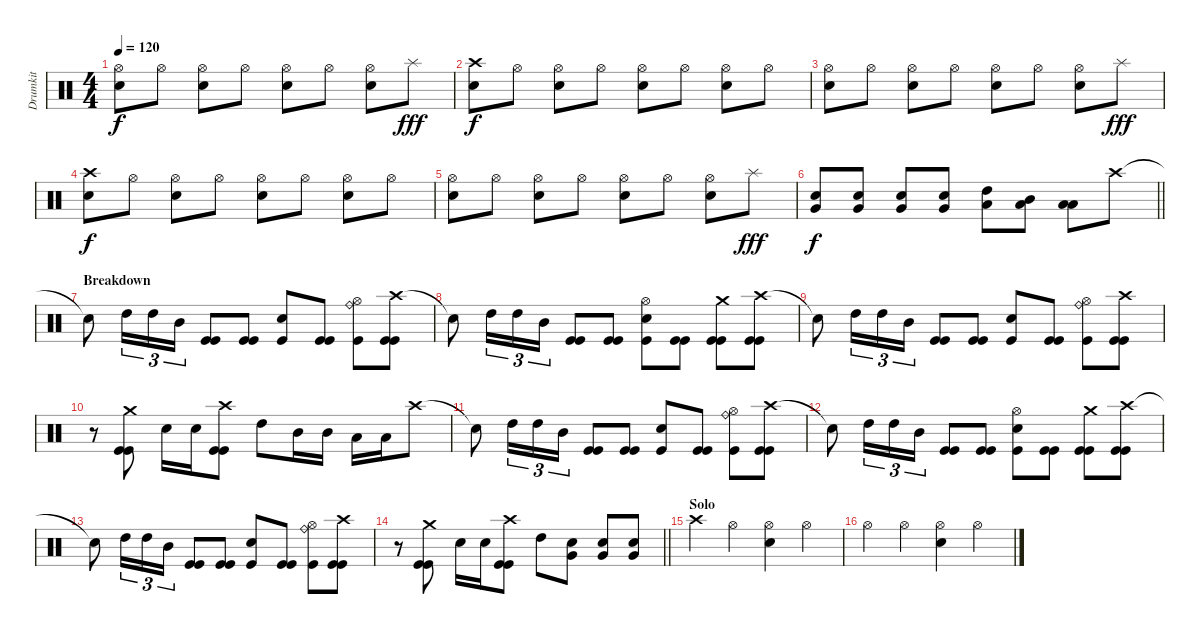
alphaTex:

\track ("Drumkit" "Drumkit") {instrument percussion}
\staff {score}
\articulation defaults
\ts (4 4)
\tempo 120
\clef neutral
\ks c
("Hi-Hat (open)" "Electric Snare (hit)").8{dy f} "Hi-Hat (open)".8 ("Hi-Hat (open)" "Electric Snare (hit)").8 "Hi-Hat (open)".8 ("Hi-Hat (open)" "Electric Snare (hit)").8 "Hi-Hat (open)".8 ("Hi-Hat (open)" "Electric Snare (hit)").8 "Splash (hit)".8{dy fff} |
("Crash high (hit)" "Electric Snare (hit)").8{dy f} "Hi-Hat (open)".8 ("Hi-Hat (open)" "Electric Snare (hit)").8 "Hi-Hat (open)".8 ("Hi-Hat (open)" "Electric Snare (hit)").8 "Hi-Hat (open)".8 ("Hi-Hat (open)" "Electric Snare (hit)").8 "Hi-Hat (open)".8 |
("Hi-Hat (open)" "Electric Snare (hit)").8 "Hi-Hat (open)".8 ("Hi-Hat (open)" "Electric Snare (hit)").8 "Hi-Hat (open)".8 ("Hi-Hat (open)" "Electric Snare (hit)").8 "Hi-Hat (open)".8 ("Hi-Hat (open)" "Electric Snare (hit)").8 "Splash (hit)".8{dy fff} |
("Crash high (hit)" "Electric Snare (hit)").8{dy f} "Hi-Hat (open)".8 ("Hi-Hat (open)" "Electric Snare (hit)").8 "Hi-Hat (open)".8 ("Hi-Hat (open)" "Electric Snare (hit)").8 "Hi-Hat (open)".8 ("Hi-Hat (open)" "Electric Snare (hit)").8 "Hi-Hat (open)".8 |
("Hi-Hat (open)" "Electric Snare (hit)").8 "Hi-Hat (open)".8 ("Hi-Hat (open)" "Electric Snare (hit)").8 "Hi-Hat (open)".8 ("Hi-Hat (open)" "Electric Snare (hit)").8 "Hi-Hat (open)".8 ("Hi-Hat (open)" "Electric Snare (hit)").8 "Splash (hit)".8{dy fff} |
\barLineRight lightlight
("Very Low Tom (hit)" "Electric Snare (hit)").8{dy f} ("Very Low Tom (hit)" "Electric Snare (hit)").8 ("Very Low Tom (hit)" "Electric Snare (hit)").8 ("Very Low Tom (hit)" "Electric Snare (hit)").8 ("High Tom (hit)" "Low Floor Tom (hit)").8 ("Mid Tom (hit)" "Low Floor Tom (hit)").8 ("Low Tom (hit)" "Low Floor Tom (hit)").8 "Crash high (hit)".8 |
\section ("" "Breakdown")
"Snare (hit)"{t}.8 "High Tom (hit)".16{tu (3 2)} "High Tom (hit)".16{tu (3 2)} "Mid Tom (hit)".16{tu (3 2)} ("Kick (hit)" "Kick (hit)").8 ("Kick (hit)" "Kick (hit)").8 ("Electric Snare (hit)" "Kick (hit)").8 ("Kick (hit)" "Kick (hit)").8 ("Hi-Hat (open)" "Ride (bell)" "Kick (hit)").8 ("Crash high (hit)" "Kick (hit)" "Kick (hit)").8 |
"Snare (hit)"{t}.8 "High Tom (hit)".16{tu (3 2)} "High Tom (hit)".16{tu (3 2)} "Mid Tom (hit)".16{tu (3 2)} ("Kick (hit)" "Kick (hit)").8 ("Kick (hit)" "Kick (hit)").8 ("Hi-Hat (open)" "Electric Snare (hit)" "Kick (hit)").8 ("Kick (hit)" "Kick (hit)").8 ("Crash medium (hit)" "Kick (hit)" "Kick (hit)").8 ("Crash high (hit)" "Kick (hit)" "Kick (hit)").8 |
"Snare (hit)"{t}.8 "High Tom (hit)".16{tu (3 2)} "High Tom (hit)".16{tu (3 2)} "Mid Tom (hit)".16{tu (3 2)} ("Kick (hit)" "Kick (hit)").8 ("Kick (hit)" "Kick (hit)").8 ("Electric Snare (hit)" "Kick (hit)").8 ("Kick (hit)" "Kick (hit)").8 ("Hi-Hat (open)" "Ride (bell)" "Kick (hit)").8 ("Crash high (hit)" "Kick (hit)" "Kick (hit)").8 |
r.8 ("Crash medium (hit)" "Kick (hit)" "Kick (hit)").8 "Electric Snare (hit)".16 "Electric Snare (hit)".16 ("Crash high (hit)" "Kick (hit)" "Kick (hit)").8 "High Tom (hit)".8 "Mid Tom (hit)".16 "Mid Tom (hit)".16 "Low Tom (hit)".16 "Low Tom (hit)".16 "Crash high (hit)".8 |
"Snare (hit)"{t}.8 "High Tom (hit)".16{tu (3 2)} "High Tom (hit)".16{tu (3 2)} "Mid Tom (hit)".16{tu (3 2)} ("Kick (hit)" "Kick (hit)").8 ("Kick (hit)" "Kick (hit)").8 ("Electric Snare (hit)" "Kick (hit)").8 ("Kick (hit)" "Kick (hit)").8 ("Hi-Hat (open)" "Ride (bell)" "Kick (hit)").8 ("Crash high (hit)" "Kick (hit)" "Kick (hit)").8 |
"Snare (hit)"{t}.8 "High Tom (hit)".16{tu (3 2)} "High Tom (hit)".16{tu (3 2)} "Mid Tom (hit)".16{tu (3 2)} ("Kick (hit)" "Kick (hit)").8 ("Kick (hit)" "Kick (hit)").8 ("Hi-Hat (open)" "Electric Snare (hit)" "Kick (hit)").8 ("Kick (hit)" "Kick (hit)").8 ("Crash medium (hit)" "Kick (hit)" "Kick (hit)").8 ("Crash high (hit)" "Kick (hit)" "Kick (hit)").8 |
"Snare (hit)"{t}.8 "High Tom (hit)".16{tu (3 2)} "High Tom (hit)".16{tu (3 2)} "Mid Tom (hit)".16{tu (3 2)} ("Kick (hit)" "Kick (hit)").8 ("Kick (hit)" "Kick (hit)").8 ("Electric Snare (hit)" "Kick (hit)").8 ("Kick (hit)" "Kick (hit)").8 ("Hi-Hat (open)" "Ride (bell)" "Kick (hit)").8 ("Crash high (hit)" "Kick (hit)" "Kick (hit)").8 |
\barLineRight lightlight
r.8 ("Crash medium (hit)" "Kick (hit)" "Kick (hit)").8 "Electric Snare (hit)".16 "Electric Snare (hit)".16 ("Crash high (hit)" "Kick (hit)" "Kick (hit)").8 "High Tom (hit)".8 ("Very Low Tom (hit)" "Electric Snare (hit)").8 ("Very Low Tom (hit)" "Electric Snare (hit)").8 ("Very Low Tom (hit)" "Electric Snare (hit)").8 |
\section ("" "Solo")
"Crash high (hit)".4 "Hi-Hat (open)".4 ("Hi-Hat (open)" "Electric Snare (hit)").4 "Hi-Hat (open)".4 |
"Hi-Hat (open)".4 "Hi-Hat (open)".4 ("Hi-Hat (open)" "Electric Snare (hit)").4 "Hi-Hat (open)".4
